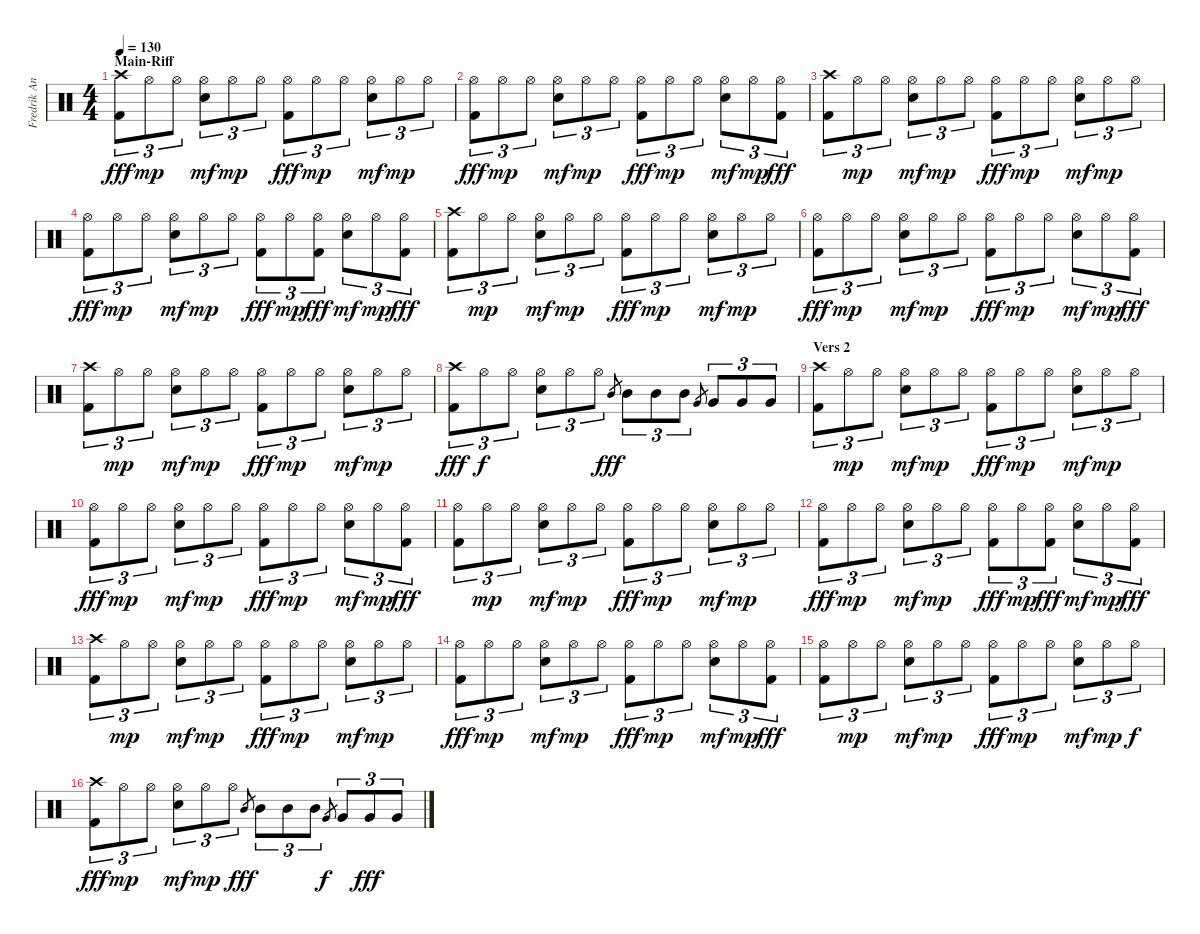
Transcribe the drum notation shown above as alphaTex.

\track ("Fredrik Andersson" "Fredrik An") {instrument percussion}
\staff {score}
\articulation defaults
\ts (4 4)
\section ("" "Main-Riff")
\tempo 130
\clef neutral
\ks c
("Crash high (hit)" "Kick (hit) 2").8{tu (3 2) dy fff} "Hi-Hat (open)".8{tu (3 2) dy mp} "Hi-Hat (open)".8{tu (3 2)} ("Hi-Hat (open)" "Snare (hit) 2").8{tu (3 2) dy mf} "Hi-Hat (open)".8{tu (3 2) dy mp} "Hi-Hat (open)".8{tu (3 2)} ("Hi-Hat (open)" "Kick (hit) 2").8{tu (3 2) dy fff} "Hi-Hat (open)".8{tu (3 2) dy mp} "Hi-Hat (open)".8{tu (3 2)} ("Hi-Hat (open)" "Snare (hit) 2").8{tu (3 2) dy mf} "Hi-Hat (open)".8{tu (3 2) dy mp} "Hi-Hat (open)".8{tu (3 2)} |
("Hi-Hat (open)" "Kick (hit) 2").8{tu (3 2) dy fff} "Hi-Hat (open)".8{tu (3 2) dy mp} "Hi-Hat (open)".8{tu (3 2)} ("Hi-Hat (open)" "Snare (hit) 2").8{tu (3 2) dy mf} "Hi-Hat (open)".8{tu (3 2) dy mp} "Hi-Hat (open)".8{tu (3 2)} ("Hi-Hat (open)" "Kick (hit) 2").8{tu (3 2) dy fff} "Hi-Hat (open)".8{tu (3 2) dy mp} "Hi-Hat (open)".8{tu (3 2)} ("Hi-Hat (open)" "Snare (hit) 2").8{tu (3 2) dy mf} "Hi-Hat (open)".8{tu (3 2) dy mp} ("Hi-Hat (open)" "Kick (hit) 2").8{tu (3 2) dy fff} |
("Crash high (hit)" "Kick (hit) 2").8{tu (3 2)} "Hi-Hat (open)".8{tu (3 2) dy mp} "Hi-Hat (open)".8{tu (3 2)} ("Hi-Hat (open)" "Snare (hit) 2").8{tu (3 2) dy mf} "Hi-Hat (open)".8{tu (3 2) dy mp} "Hi-Hat (open)".8{tu (3 2)} ("Hi-Hat (open)" "Kick (hit) 2").8{tu (3 2) dy fff} "Hi-Hat (open)".8{tu (3 2) dy mp} "Hi-Hat (open)".8{tu (3 2)} ("Hi-Hat (open)" "Snare (hit) 2").8{tu (3 2) dy mf} "Hi-Hat (open)".8{tu (3 2) dy mp} "Hi-Hat (open)".8{tu (3 2)} |
("Hi-Hat (open)" "Kick (hit) 2").8{tu (3 2) dy fff} "Hi-Hat (open)".8{tu (3 2) dy mp} "Hi-Hat (open)".8{tu (3 2)} ("Hi-Hat (open)" "Snare (hit) 2").8{tu (3 2) dy mf} "Hi-Hat (open)".8{tu (3 2) dy mp} "Hi-Hat (open)".8{tu (3 2)} ("Hi-Hat (open)" "Kick (hit) 2").8{tu (3 2) dy fff} "Hi-Hat (open)".8{tu (3 2) dy mp} ("Hi-Hat (open)" "Kick (hit) 2").8{tu (3 2) dy fff} ("Hi-Hat (open)" "Snare (hit) 2").8{tu (3 2) dy mf} "Hi-Hat (open)".8{tu (3 2) dy mp} ("Hi-Hat (open)" "Kick (hit) 2").8{tu (3 2) dy fff} |
("Crash high (hit)" "Kick (hit) 2").8{tu (3 2)} "Hi-Hat (open)".8{tu (3 2) dy mp} "Hi-Hat (open)".8{tu (3 2)} ("Hi-Hat (open)" "Snare (hit) 2").8{tu (3 2) dy mf} "Hi-Hat (open)".8{tu (3 2) dy mp} "Hi-Hat (open)".8{tu (3 2)} ("Hi-Hat (open)" "Kick (hit) 2").8{tu (3 2) dy fff} "Hi-Hat (open)".8{tu (3 2) dy mp} "Hi-Hat (open)".8{tu (3 2)} ("Hi-Hat (open)" "Snare (hit) 2").8{tu (3 2) dy mf} "Hi-Hat (open)".8{tu (3 2) dy mp} "Hi-Hat (open)".8{tu (3 2)} |
("Hi-Hat (open)" "Kick (hit) 2").8{tu (3 2) dy fff} "Hi-Hat (open)".8{tu (3 2) dy mp} "Hi-Hat (open)".8{tu (3 2)} ("Hi-Hat (open)" "Snare (hit) 2").8{tu (3 2) dy mf} "Hi-Hat (open)".8{tu (3 2) dy mp} "Hi-Hat (open)".8{tu (3 2)} ("Hi-Hat (open)" "Kick (hit) 2").8{tu (3 2) dy fff} "Hi-Hat (open)".8{tu (3 2) dy mp} "Hi-Hat (open)".8{tu (3 2)} ("Hi-Hat (open)" "Snare (hit) 2").8{tu (3 2) dy mf} "Hi-Hat (open)".8{tu (3 2) dy mp} ("Hi-Hat (open)" "Kick (hit) 2").8{tu (3 2) dy fff} |
("Crash high (hit)" "Kick (hit) 2").8{tu (3 2)} "Hi-Hat (open)".8{tu (3 2) dy mp} "Hi-Hat (open)".8{tu (3 2)} ("Hi-Hat (open)" "Snare (hit) 2").8{tu (3 2) dy mf} "Hi-Hat (open)".8{tu (3 2) dy mp} "Hi-Hat (open)".8{tu (3 2)} ("Hi-Hat (open)" "Kick (hit) 2").8{tu (3 2) dy fff} "Hi-Hat (open)".8{tu (3 2) dy mp} "Hi-Hat (open)".8{tu (3 2)} ("Hi-Hat (open)" "Snare (hit) 2").8{tu (3 2) dy mf} "Hi-Hat (open)".8{tu (3 2) dy mp} "Hi-Hat (open)".8{tu (3 2)} |
("Crash high (hit)" "Kick (hit) 2").8{tu (3 2) dy fff} "Hi-Hat (open)".8{tu (3 2) dy f} "Hi-Hat (open)".8{tu (3 2)} ("Hi-Hat (open)" "Snare (hit) 2").8{tu (3 2)} "Hi-Hat (open)".8{tu (3 2)} "Hi-Hat (open)".8{tu (3 2)} "Mid Tom (hit)".8{gr dy fff} "Mid Tom (hit)".8{tu (3 2)} "Mid Tom (hit)".8{tu (3 2)} "Mid Tom (hit)".8{tu (3 2)} "Very Low Tom (hit)".8{gr} "Very Low Tom (hit)".8{tu (3 2)} "Very Low Tom (hit)".8{tu (3 2)} "Very Low Tom (hit)".8{tu (3 2)} |
\section ("" "Vers 2")
("Crash high (hit)" "Kick (hit) 2").8{tu (3 2)} "Hi-Hat (open)".8{tu (3 2) dy mp} "Hi-Hat (open)".8{tu (3 2)} ("Hi-Hat (open)" "Snare (hit) 2").8{tu (3 2) dy mf} "Hi-Hat (open)".8{tu (3 2) dy mp} "Hi-Hat (open)".8{tu (3 2)} ("Hi-Hat (open)" "Kick (hit) 2").8{tu (3 2) dy fff} "Hi-Hat (open)".8{tu (3 2) dy mp} "Hi-Hat (open)".8{tu (3 2)} ("Hi-Hat (open)" "Snare (hit) 2").8{tu (3 2) dy mf} "Hi-Hat (open)".8{tu (3 2) dy mp} "Hi-Hat (open)".8{tu (3 2)} |
("Hi-Hat (open)" "Kick (hit) 2").8{tu (3 2) dy fff} "Hi-Hat (open)".8{tu (3 2) dy mp} "Hi-Hat (open)".8{tu (3 2)} ("Hi-Hat (open)" "Snare (hit) 2").8{tu (3 2) dy mf} "Hi-Hat (open)".8{tu (3 2) dy mp} "Hi-Hat (open)".8{tu (3 2)} ("Hi-Hat (open)" "Kick (hit) 2").8{tu (3 2) dy fff} "Hi-Hat (open)".8{tu (3 2) dy mp} "Hi-Hat (open)".8{tu (3 2)} ("Hi-Hat (open)" "Snare (hit) 2").8{tu (3 2) dy mf} "Hi-Hat (open)".8{tu (3 2) dy mp} ("Hi-Hat (open)" "Kick (hit) 2").8{tu (3 2) dy fff} |
("Hi-Hat (open)" "Kick (hit) 2").8{tu (3 2)} "Hi-Hat (open)".8{tu (3 2) dy mp} "Hi-Hat (open)".8{tu (3 2)} ("Hi-Hat (open)" "Snare (hit) 2").8{tu (3 2) dy mf} "Hi-Hat (open)".8{tu (3 2) dy mp} "Hi-Hat (open)".8{tu (3 2)} ("Hi-Hat (open)" "Kick (hit) 2").8{tu (3 2) dy fff} "Hi-Hat (open)".8{tu (3 2) dy mp} "Hi-Hat (open)".8{tu (3 2)} ("Hi-Hat (open)" "Snare (hit) 2").8{tu (3 2) dy mf} "Hi-Hat (open)".8{tu (3 2) dy mp} "Hi-Hat (open)".8{tu (3 2)} |
("Hi-Hat (open)" "Kick (hit) 2").8{tu (3 2) dy fff} "Hi-Hat (open)".8{tu (3 2) dy mp} "Hi-Hat (open)".8{tu (3 2)} ("Hi-Hat (open)" "Snare (hit) 2").8{tu (3 2) dy mf} "Hi-Hat (open)".8{tu (3 2) dy mp} "Hi-Hat (open)".8{tu (3 2)} ("Hi-Hat (open)" "Kick (hit) 2").8{tu (3 2) dy fff} "Hi-Hat (open)".8{tu (3 2) dy mp} ("Hi-Hat (open)" "Kick (hit) 2").8{tu (3 2) dy fff} ("Hi-Hat (open)" "Snare (hit) 2").8{tu (3 2) dy mf} "Hi-Hat (open)".8{tu (3 2) dy mp} ("Hi-Hat (open)" "Kick (hit) 2").8{tu (3 2) dy fff} |
("Crash high (hit)" "Kick (hit) 2").8{tu (3 2)} "Hi-Hat (open)".8{tu (3 2) dy mp} "Hi-Hat (open)".8{tu (3 2)} ("Hi-Hat (open)" "Snare (hit) 2").8{tu (3 2) dy mf} "Hi-Hat (open)".8{tu (3 2) dy mp} "Hi-Hat (open)".8{tu (3 2)} ("Hi-Hat (open)" "Kick (hit) 2").8{tu (3 2) dy fff} "Hi-Hat (open)".8{tu (3 2) dy mp} "Hi-Hat (open)".8{tu (3 2)} ("Hi-Hat (open)" "Snare (hit) 2").8{tu (3 2) dy mf} "Hi-Hat (open)".8{tu (3 2) dy mp} "Hi-Hat (open)".8{tu (3 2)} |
("Hi-Hat (open)" "Kick (hit) 2").8{tu (3 2) dy fff} "Hi-Hat (open)".8{tu (3 2) dy mp} "Hi-Hat (open)".8{tu (3 2)} ("Hi-Hat (open)" "Snare (hit) 2").8{tu (3 2) dy mf} "Hi-Hat (open)".8{tu (3 2) dy mp} "Hi-Hat (open)".8{tu (3 2)} ("Hi-Hat (open)" "Kick (hit) 2").8{tu (3 2) dy fff} "Hi-Hat (open)".8{tu (3 2) dy mp} "Hi-Hat (open)".8{tu (3 2)} ("Hi-Hat (open)" "Snare (hit) 2").8{tu (3 2) dy mf} "Hi-Hat (open)".8{tu (3 2) dy mp} ("Hi-Hat (open)" "Kick (hit) 2").8{tu (3 2) dy fff} |
("Hi-Hat (open)" "Kick (hit) 2").8{tu (3 2)} "Hi-Hat (open)".8{tu (3 2) dy mp} "Hi-Hat (open)".8{tu (3 2)} ("Hi-Hat (open)" "Snare (hit) 2").8{tu (3 2) dy mf} "Hi-Hat (open)".8{tu (3 2) dy mp} "Hi-Hat (open)".8{tu (3 2)} ("Hi-Hat (open)" "Kick (hit) 2").8{tu (3 2) dy fff} "Hi-Hat (open)".8{tu (3 2) dy mp} "Hi-Hat (open)".8{tu (3 2)} ("Hi-Hat (open)" "Snare (hit) 2").8{tu (3 2) dy mf} "Hi-Hat (open)".8{tu (3 2) dy mp} "Hi-Hat (open)".8{tu (3 2) dy f} |
("Crash high (hit)" "Kick (hit) 2").8{tu (3 2) dy fff} "Hi-Hat (open)".8{tu (3 2) dy mp} "Hi-Hat (open)".8{tu (3 2)} ("Hi-Hat (open)" "Snare (hit) 2").8{tu (3 2) dy mf} "Hi-Hat (open)".8{tu (3 2) dy mp} "Hi-Hat (open)".8{tu (3 2)} "Mid Tom (hit)".8{gr dy fff} "Mid Tom (hit)".8{tu (3 2)} "Mid Tom (hit)".8{tu (3 2)} "Mid Tom (hit)".8{tu (3 2)} "Very Low Tom (hit)".8{gr dy f} "Very Low Tom (hit)".8{tu (3 2)} "Very Low Tom (hit)".8{tu (3 2) dy fff} "Very Low Tom (hit)".8{tu (3 2)}
